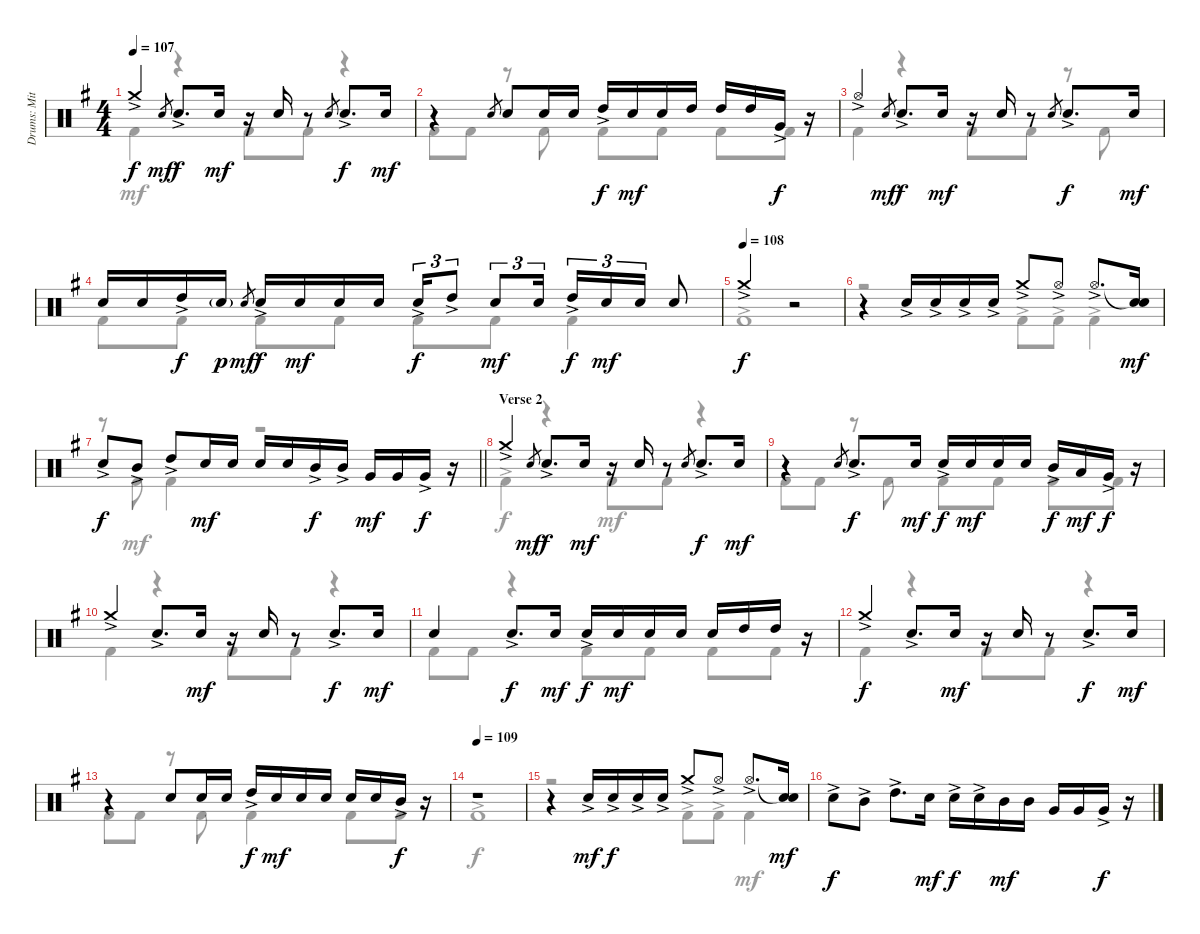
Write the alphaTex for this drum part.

\track ("Drums: Mitch Mitchell" "Drums: Mit") {instrument percussion}
\staff {score}
\articulation defaults
\voice
\ts (4 4)
\tempo 107
\clef neutral
\ks g "Crash medium (hit)"{ac}.4{dy f} "Snare (hit) 2".8{gr dy mf} "Snare (hit) 2"{ac}.8{d dy f} "Snare (hit) 2".16{dy mf}
r.16 "Snare (hit) 2".16 r.8 "Snare (hit) 2".8{gr} "Snare (hit) 2"{ac}.8{d dy f} "Snare (hit) 2".16{dy mf} |
r.4 "Snare (hit) 2".8{gr} "Snare (hit) 2".8 "Snare (hit) 2".16 "Snare (hit) 2".16 "High Tom (hit)"{ac}.16{dy f} "Snare (hit) 2".16{dy mf} "Snare (hit) 2".16 "High Tom (hit)".16 "High Tom (hit)".16 "High Tom (hit)".16 "Very Low Tom (hit)"{ac}.16{dy f} r.16 |
"Hi-Hat (open)"{ac}.4 "Snare (hit) 2".8{gr dy mf} "Snare (hit) 2"{ac}.8{d dy f} "Snare (hit) 2".16{dy mf} r.16 "Snare (hit) 2".16 r.8 "Snare (hit) 2".8{gr} "Snare (hit) 2"{ac}.8{d dy f} "Snare (hit) 2".16{dy mf} |
"Snare (hit) 2".16 "Snare (hit) 2".16 "High Tom (hit)"{ac}.16{dy f} "Snare (hit) 2"{g}.16{dy p} "Snare (hit) 2".8{gr dy mf} "Snare (hit) 2"{ac}.16{dy f} "Snare (hit) 2".16{dy mf} "Snare (hit) 2".16 "Snare (hit) 2".16 "Snare (hit) 2"{ac}.16{tu (3 2) dy f} "High Tom (hit)"{ac}.8{tu (3 2)} "Snare (hit) 2".8{tu (3 2) dy mf} "Snare (hit) 2".16{tu (3 2)} "High Tom (hit)"{ac}.16{tu (3 2) dy f} "Snare (hit) 2".16{tu (3 2) dy mf} "Snare (hit) 2".16{tu (3 2)} "Snare (hit) 2".8 |
\tempo (108)
"Crash medium (hit)"{ac}.2{dy f} r.2 |
r.4 "Snare (hit) 2"{ac}.16 "Snare (hit) 2"{ac}.16 "Snare (hit) 2"{ac}.16 "Snare (hit) 2"{ac}.16 "Crash medium (hit)"{ac}.8 "Hi-Hat (open)"{ac}.8 "Hi-Hat (open)"{ac}.8{d} ("Snare (hit)"{t} "Snare (hit) 2").16{dy mf} |
\barLineRight lightlight "Snare (hit) 2"{ac}.8{dy f} "Mid Tom (hit)"{ac}.8 "High Tom (hit)"{ac}.8 "Snare (hit) 2".16{dy mf} "Snare (hit) 2".16 "Snare (hit) 2".16 "Snare (hit) 2".16 "Mid Tom (hit)"{ac}.16{dy f} "Mid Tom (hit)"{ac}.16 "Very Low Tom (hit)".16{dy mf} "Very Low Tom (hit)".16 "Very Low Tom (hit)"{ac}.16{dy f}
r.16 |
\section ("" "Verse 2")
"Crash medium (hit)"{ac}.4 "Snare (hit) 2".8{gr dy mf} "Snare (hit) 2"{ac}.8{d dy f} "Snare (hit) 2".16{dy mf} r.16 "Snare (hit) 2".16 r.8 "Snare (hit) 2".8{gr} "Snare (hit) 2"{ac}.8{d dy f} "Snare (hit) 2".16{dy mf} |
r.4 "Snare (hit) 2".8{gr} "Snare (hit) 2"{ac}.8{d dy f} "Snare (hit) 2".16{dy mf} "Snare (hit) 2"{ac}.16{dy f} "Snare (hit) 2".16{dy mf} "Snare (hit) 2".16 "Snare (hit) 2".16 "Mid Tom (hit)"{ac}.16{dy f} "Low Tom (hit)".16{dy mf} "Very Low Tom (hit)"{ac}.16{dy f} r.16 |
"Crash medium (hit)"{ac}.4 "Snare (hit) 2"{ac}.8{d} "Snare (hit) 2".16{dy mf} r.16 "Snare (hit) 2".16 r.8 "Snare (hit) 2"{ac}.8{d dy f} "Snare (hit) 2".16{dy mf} |
"Snare (hit) 2".4 "Snare (hit) 2"{ac}.8{d dy f} "Snare (hit) 2".16{dy mf} "Snare (hit) 2"{ac}.16{dy f} "Snare (hit) 2".16{dy mf} "Snare (hit) 2".16 "Snare (hit) 2".16 "Snare (hit) 2".16 "High Tom (hit)".16 "High Tom (hit)".16 r.16 |
"Crash medium (hit)"{ac}.4{dy f} "Snare (hit) 2"{ac}.8{d} "Snare (hit) 2".16{dy mf} r.16 "Snare (hit) 2".16 r.8 "Snare (hit) 2"{ac}.8{d dy f} "Snare (hit) 2".16{dy mf} |
r.4 "Snare (hit) 2".8 "Snare (hit) 2".16 "Snare (hit) 2".16 "High Tom (hit)"{ac}.16{dy f} "Snare (hit) 2".16{dy mf} "Snare (hit) 2".16 "Snare (hit) 2".16 "Snare (hit) 2".16 "Snare (hit) 2".16 "Mid Tom (hit)"{ac}.16{dy f} r.16 |
\tempo 109
r.1 |
r.4 "Snare (hit) 2"{ac}.16{dy mf} "Snare (hit) 2"{ac}.16{dy f} "Snare (hit) 2"{ac}.16 "Snare (hit) 2"{ac}.16 "Crash medium (hit)"{ac}.8 "Hi-Hat (open)"{ac}.8 "Hi-Hat (open)"{ac}.8{d} ("Snare (hit)"{t} "Snare (hit) 2").16{dy mf} |
"Snare (hit) 2"{ac}.8{dy f} "Mid Tom (hit)"{ac}.8 "High Tom (hit)"{ac}.8{d} "Snare (hit) 2".16{dy mf} "Snare (hit) 2"{ac}.16{dy f} "Snare (hit) 2"{ac}.16 "Mid Tom (hit)".16{dy mf} "Mid Tom (hit)".16 "Very Low Tom (hit)".16 "Very Low Tom (hit)".16 "Very Low Tom (hit)"{ac}.16{dy f} r.16
\voice
\clef neutral
\ottava regular
\simile none
\ks g "Kick (hit) 2".4{dy mf}
r.4 "Kick (hit) 2".8 "Kick (hit) 2".8 r.4 |
"Kick (hit) 2".8 "Kick (hit) 2".8 r.8 "Kick (hit) 2".8 "Kick (hit) 2".8 "Kick (hit) 2".8 "Kick (hit) 2".8 "Kick (hit) 2".8 |
"Kick (hit) 2".4 r.4 "Kick (hit) 2".8 "Kick (hit) 2".8 r.8 "Kick (hit) 2".8 |
"Kick (hit) 2".8 "Kick (hit) 2".8 "Kick (hit) 2".8 "Kick (hit) 2".8 "Kick (hit) 2".8 "Kick (hit) 2".8 "Kick (hit) 2".4 |
"Kick (hit) 2"{ac}.1{dy f} |
r.2 "Kick (hit) 2"{ac}.8 "Kick (hit) 2"{ac}.8 "Kick (hit) 2"{ac}.4 |
\barLineRight lightlight
r.8 "Kick (hit) 2".8{dy mf} "Kick (hit) 2".4 r.2 |
"Kick (hit) 2"{ac}.4{dy f} r.4 "Kick (hit) 2".8{dy mf} "Kick (hit) 2".8 r.4 |
"Kick (hit) 2".8 "Kick (hit) 2".8 r.8 "Kick (hit) 2".8 "Kick (hit) 2".8 "Kick (hit) 2".8 "Kick (hit) 2".8 "Kick (hit) 2".8 |
"Kick (hit) 2".4 r.4 "Kick (hit) 2".8 "Kick (hit) 2".8 r.4 |
"Kick (hit) 2".8 "Kick (hit) 2".8 r.4 "Kick (hit) 2".8 "Kick (hit) 2".8 "Kick (hit) 2".8 "Kick (hit) 2".8 |
"Kick (hit) 2".4 r.4 "Kick (hit) 2".8 "Kick (hit) 2".8 r.4 |
"Kick (hit) 2".8 "Kick (hit) 2".8 r.8 "Kick (hit) 2".8 "Kick (hit) 2".4 "Kick (hit) 2".8 "Kick (hit) 2".8 |
"Kick (hit) 2"{ac}.1{dy f} |
r.2 "Kick (hit) 2"{ac}.8 "Kick (hit) 2"{ac}.8 "Kick (hit) 2".4{dy mf} |
